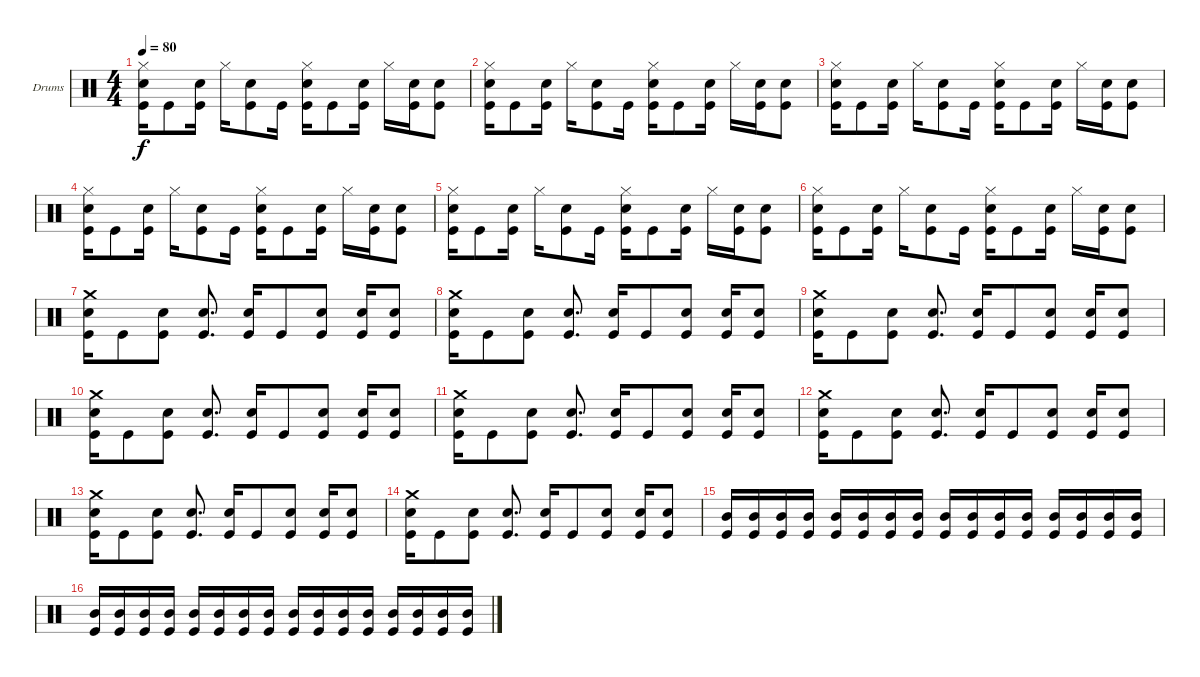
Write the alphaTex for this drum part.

\defaultSystemsLayout 4
\bracketExtendMode groupsimilarinstruments
\firstSystemTrackNameOrientation horizontal
\otherSystemsTrackNameOrientation horizontal
\track ("Drumkit" "Drums") {instrument percussion}
\staff {score}
\articulation defaults
\ts (4 4)
\tempo 80
\clef neutral
\scale
0.333333
\ks c
("Hi-Hat (closed)" "Snare (hit) 2" "Kick (hit)").16{dy f} "Kick (hit)".8 ("Snare (hit) 2" "Kick (hit)").16 "Hi-Hat (closed)".16 ("Snare (hit) 2" "Kick (hit)").8 "Kick (hit)".16 ("Hi-Hat (closed)" "Snare (hit) 2" "Kick (hit)").16 "Kick (hit)".8 ("Snare (hit) 2" "Kick (hit)").16 "Hi-Hat (closed)".16 ("Snare (hit) 2" "Kick (hit)").16 ("Snare (hit) 2" "Kick (hit)").8 |
\scale
0.333333 ("Hi-Hat (closed)" "Snare (hit) 2" "Kick (hit)").16 "Kick (hit)".8 ("Snare (hit) 2" "Kick (hit)").16 "Hi-Hat (closed)".16 ("Snare (hit) 2" "Kick (hit)").8 "Kick (hit)".16 ("Hi-Hat (closed)" "Snare (hit) 2" "Kick (hit)").16 "Kick (hit)".8 ("Snare (hit) 2" "Kick (hit)").16 "Hi-Hat (closed)".16 ("Snare (hit) 2" "Kick (hit)").16 ("Snare (hit) 2" "Kick (hit)").8 |
\scale
0.333333 ("Hi-Hat (closed)" "Snare (hit) 2" "Kick (hit)").16 "Kick (hit)".8 ("Snare (hit) 2" "Kick (hit)").16 "Hi-Hat (closed)".16 ("Snare (hit) 2" "Kick (hit)").8 "Kick (hit)".16 ("Hi-Hat (closed)" "Snare (hit) 2" "Kick (hit)").16 "Kick (hit)".8 ("Snare (hit) 2" "Kick (hit)").16 "Hi-Hat (closed)".16 ("Snare (hit) 2" "Kick (hit)").16 ("Snare (hit) 2" "Kick (hit)").8 |
\scale
0.333333 ("Hi-Hat (closed)" "Snare (hit) 2" "Kick (hit)").16 "Kick (hit)".8 ("Snare (hit) 2" "Kick (hit)").16 "Hi-Hat (closed)".16 ("Snare (hit) 2" "Kick (hit)").8 "Kick (hit)".16 ("Hi-Hat (closed)" "Snare (hit) 2" "Kick (hit)").16 "Kick (hit)".8 ("Snare (hit) 2" "Kick (hit)").16 "Hi-Hat (closed)".16 ("Snare (hit) 2" "Kick (hit)").16 ("Snare (hit) 2" "Kick (hit)").8 |
\scale
0.333333 ("Hi-Hat (closed)" "Snare (hit) 2" "Kick (hit)").16 "Kick (hit)".8 ("Snare (hit) 2" "Kick (hit)").16 "Hi-Hat (closed)".16 ("Snare (hit) 2" "Kick (hit)").8 "Kick (hit)".16 ("Hi-Hat (closed)" "Snare (hit) 2" "Kick (hit)").16 "Kick (hit)".8 ("Snare (hit) 2" "Kick (hit)").16 "Hi-Hat (closed)".16 ("Snare (hit) 2" "Kick (hit)").16 ("Snare (hit) 2" "Kick (hit)").8 |
\scale
0.333333 ("Hi-Hat (closed)" "Snare (hit) 2" "Kick (hit)").16 "Kick (hit)".8 ("Snare (hit) 2" "Kick (hit)").16 "Hi-Hat (closed)".16 ("Snare (hit) 2" "Kick (hit)").8 "Kick (hit)".16 ("Hi-Hat (closed)" "Snare (hit) 2" "Kick (hit)").16 "Kick (hit)".8 ("Snare (hit) 2" "Kick (hit)").16 "Hi-Hat (closed)".16 ("Snare (hit) 2" "Kick (hit)").16 ("Snare (hit) 2" "Kick (hit)").8 |
\scale
0.333333 ("Crash medium (hit)" "Snare (hit) 2" "Kick (hit)").16 "Kick (hit)".8 ("Snare (hit) 2" "Kick (hit)").8 ("Snare (hit) 2" "Kick (hit)").8{d} ("Snare (hit) 2" "Kick (hit)").16 "Kick (hit)".8 ("Snare (hit) 2" "Kick (hit)").8 ("Snare (hit) 2" "Kick (hit)").16 ("Snare (hit) 2" "Kick (hit)").8 |
\scale
0.333333 ("Crash medium (hit)" "Snare (hit) 2" "Kick (hit)").16 "Kick (hit)".8 ("Snare (hit) 2" "Kick (hit)").8 ("Snare (hit) 2" "Kick (hit)").8{d} ("Snare (hit) 2" "Kick (hit)").16 "Kick (hit)".8 ("Snare (hit) 2" "Kick (hit)").8 ("Snare (hit) 2" "Kick (hit)").16 ("Snare (hit) 2" "Kick (hit)").8 |
\scale
0.333333 ("Crash medium (hit)" "Snare (hit) 2" "Kick (hit)").16 "Kick (hit)".8 ("Snare (hit) 2" "Kick (hit)").8 ("Snare (hit) 2" "Kick (hit)").8{d} ("Snare (hit) 2" "Kick (hit)").16 "Kick (hit)".8 ("Snare (hit) 2" "Kick (hit)").8 ("Snare (hit) 2" "Kick (hit)").16 ("Snare (hit) 2" "Kick (hit)").8 |
\scale
0.333333 ("Crash medium (hit)" "Snare (hit) 2" "Kick (hit)").16 "Kick (hit)".8 ("Snare (hit) 2" "Kick (hit)").8 ("Snare (hit) 2" "Kick (hit)").8{d} ("Snare (hit) 2" "Kick (hit)").16 "Kick (hit)".8 ("Snare (hit) 2" "Kick (hit)").8 ("Snare (hit) 2" "Kick (hit)").16 ("Snare (hit) 2" "Kick (hit)").8 |
\scale
0.333333 ("Crash medium (hit)" "Snare (hit) 2" "Kick (hit)").16 "Kick (hit)".8 ("Snare (hit) 2" "Kick (hit)").8 ("Snare (hit) 2" "Kick (hit)").8{d} ("Snare (hit) 2" "Kick (hit)").16 "Kick (hit)".8 ("Snare (hit) 2" "Kick (hit)").8 ("Snare (hit) 2" "Kick (hit)").16 ("Snare (hit) 2" "Kick (hit)").8 |
\scale
0.333333 ("Crash medium (hit)" "Snare (hit) 2" "Kick (hit)").16 "Kick (hit)".8 ("Snare (hit) 2" "Kick (hit)").8 ("Snare (hit) 2" "Kick (hit)").8{d} ("Snare (hit) 2" "Kick (hit)").16 "Kick (hit)".8 ("Snare (hit) 2" "Kick (hit)").8 ("Snare (hit) 2" "Kick (hit)").16 ("Snare (hit) 2" "Kick (hit)").8 |
\scale
0.333333 ("Crash medium (hit)" "Snare (hit) 2" "Kick (hit)").16 "Kick (hit)".8 ("Snare (hit) 2" "Kick (hit)").8 ("Snare (hit) 2" "Kick (hit)").8{d} ("Snare (hit) 2" "Kick (hit)").16 "Kick (hit)".8 ("Snare (hit) 2" "Kick (hit)").8 ("Snare (hit) 2" "Kick (hit)").16 ("Snare (hit) 2" "Kick (hit)").8 |
\scale
0.333333 ("Crash medium (hit)" "Snare (hit) 2" "Kick (hit)").16 "Kick (hit)".8 ("Snare (hit) 2" "Kick (hit)").8 ("Snare (hit) 2" "Kick (hit)").8{d} ("Snare (hit) 2" "Kick (hit)").16 "Kick (hit)".8 ("Snare (hit) 2" "Kick (hit)").8 ("Snare (hit) 2" "Kick (hit)").16 ("Snare (hit) 2" "Kick (hit)").8 |
\scale
0.333333 ("Mid Tom (hit)" "Kick (hit)").16 ("Mid Tom (hit)" "Kick (hit)").16 ("Mid Tom (hit)" "Kick (hit)").16 ("Mid Tom (hit)" "Kick (hit)").16 ("Mid Tom (hit)" "Kick (hit)").16 ("Mid Tom (hit)" "Kick (hit)").16 ("Mid Tom (hit)" "Kick (hit)").16 ("Mid Tom (hit)" "Kick (hit)").16 ("Mid Tom (hit)" "Kick (hit)").16 ("Mid Tom (hit)" "Kick (hit)").16 ("Mid Tom (hit)" "Kick (hit)").16 ("Mid Tom (hit)" "Kick (hit)").16 ("Mid Tom (hit)" "Kick (hit)").16 ("Mid Tom (hit)" "Kick (hit)").16 ("Mid Tom (hit)" "Kick (hit)").16 ("Mid Tom (hit)" "Kick (hit)").16 |
("Mid Tom (hit)" "Kick (hit)").16 ("Mid Tom (hit)" "Kick (hit)").16 ("Mid Tom (hit)" "Kick (hit)").16 ("Mid Tom (hit)" "Kick (hit)").16 ("Mid Tom (hit)" "Kick (hit)").16 ("Mid Tom (hit)" "Kick (hit)").16 ("Mid Tom (hit)" "Kick (hit)").16 ("Mid Tom (hit)" "Kick (hit)").16 ("Mid Tom (hit)" "Kick (hit)").16 ("Mid Tom (hit)" "Kick (hit)").16 ("Mid Tom (hit)" "Kick (hit)").16 ("Mid Tom (hit)" "Kick (hit)").16 ("Mid Tom (hit)" "Kick (hit)").16 ("Mid Tom (hit)" "Kick (hit)").16 ("Mid Tom (hit)" "Kick (hit)").16 ("Mid Tom (hit)" "Kick (hit)").16
